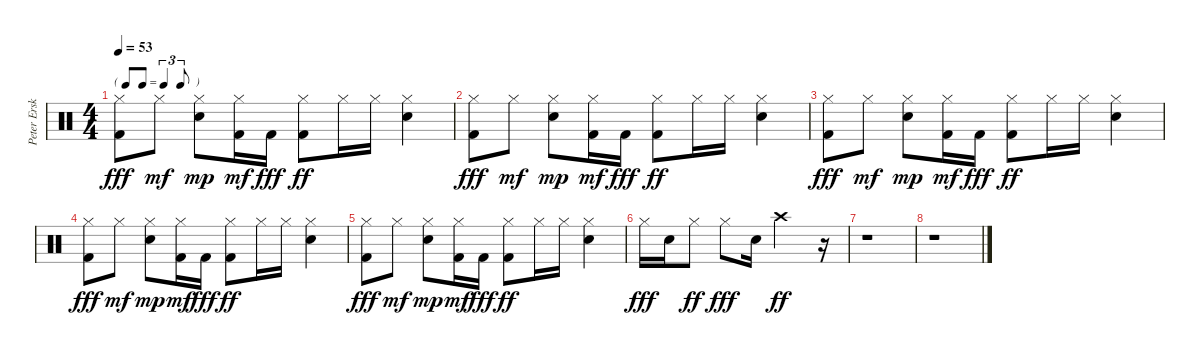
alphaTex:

\track ("Peter Erskine" "Peter Ersk") {instrument percussion}
\staff {score}
\articulation defaults
\ts (4 4)
\tf triplet8th
\tempo 53
\clef neutral
\ks c
("Kick (hit) 2" "Hi-Hat (closed)").8{dy fff} "Hi-Hat (closed)".8{dy mf} ("Snare (hit) 2" "Hi-Hat (closed)").8{dy mp} ("Kick (hit) 2" "Hi-Hat (closed)").16{dy mf} "Kick (hit) 2".16{dy fff} ("Kick (hit) 2" "Hi-Hat (closed)").8{dy ff} "Hi-Hat (closed)".16 "Hi-Hat (closed)".16 ("Snare (hit) 2" "Hi-Hat (closed)").4 |
("Kick (hit) 2" "Hi-Hat (closed)").8{dy fff} "Hi-Hat (closed)".8{dy mf} ("Snare (hit) 2" "Hi-Hat (closed)").8{dy mp} ("Kick (hit) 2" "Hi-Hat (closed)").16{dy mf} "Kick (hit) 2".16{dy fff} ("Kick (hit) 2" "Hi-Hat (closed)").8{dy ff} "Hi-Hat (closed)".16 "Hi-Hat (closed)".16 ("Snare (hit) 2" "Hi-Hat (closed)").4 |
("Kick (hit) 2" "Hi-Hat (closed)").8{dy fff} "Hi-Hat (closed)".8{dy mf} ("Snare (hit) 2" "Hi-Hat (closed)").8{dy mp} ("Kick (hit) 2" "Hi-Hat (closed)").16{dy mf} "Kick (hit) 2".16{dy fff} ("Kick (hit) 2" "Hi-Hat (closed)").8{dy ff} "Hi-Hat (closed)".16 "Hi-Hat (closed)".16 ("Snare (hit) 2" "Hi-Hat (closed)").4 |
("Kick (hit) 2" "Hi-Hat (closed)").8{dy fff} "Hi-Hat (closed)".8{dy mf} ("Snare (hit) 2" "Hi-Hat (closed)").8{dy mp} ("Kick (hit) 2" "Hi-Hat (closed)").16{dy mf} "Kick (hit) 2".16{dy fff} ("Kick (hit) 2" "Hi-Hat (closed)").8{dy ff} "Hi-Hat (closed)".16 "Hi-Hat (closed)".16 ("Snare (hit) 2" "Hi-Hat (closed)").4 |
("Kick (hit) 2" "Hi-Hat (closed)").8{dy fff} "Hi-Hat (closed)".8{dy mf} ("Snare (hit) 2" "Hi-Hat (closed)").8{dy mp} ("Kick (hit) 2" "Hi-Hat (closed)").16{dy mf} "Kick (hit) 2".16{dy fff} ("Kick (hit) 2" "Hi-Hat (closed)").8{dy ff} "Hi-Hat (closed)".16 "Hi-Hat (closed)".16 ("Snare (hit) 2" "Hi-Hat (closed)").4 |
"Hi-Hat (closed)".16{dy fff} "Snare (hit) 2".16 "Hi-Hat (closed)".8{dy ff} "Hi-Hat (closed)".8{dy fff} "Snare (hit) 2".16 "Crash high (hit)".2{dy ff} r.16 |
r.1 |
r.1
